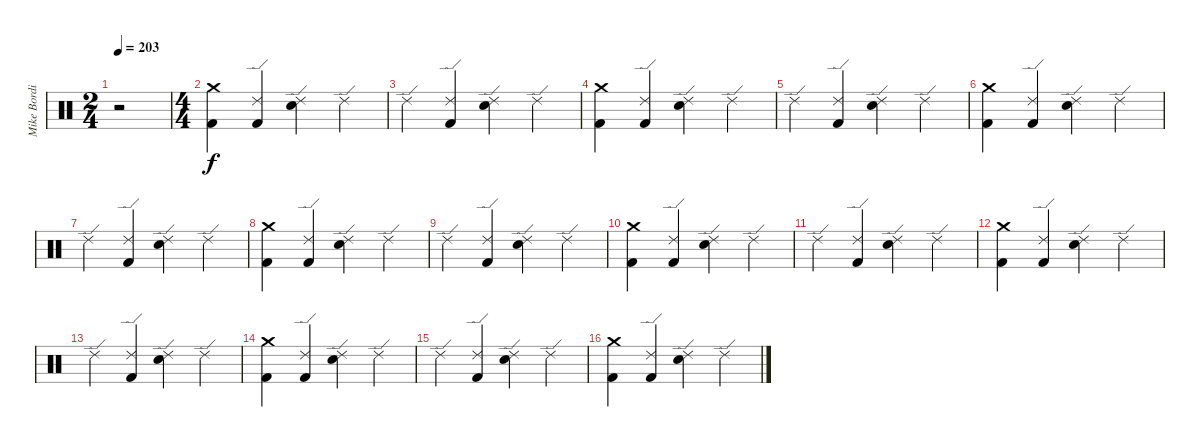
\track ("Mike Bordin" "Mike Bordi") {instrument percussion}
\staff {score}
\articulation defaults
\ts (2 4)
\tempo 203
\clef neutral
\ks c
r.2{dy f} |
\ts (4 4)
("Crash medium (hit)" "Kick (hit) 2").4 ("Ride (edge) 2" "Kick (hit) 2").4 ("Ride (edge) 2" "Snare (hit) 2").4 "Ride (edge) 2".4 |
"Ride (edge) 2".4 ("Ride (edge) 2" "Kick (hit) 2").4 ("Ride (edge) 2" "Snare (hit) 2").4 "Ride (edge) 2".4 |
("Crash medium (hit)" "Kick (hit) 2").4 ("Ride (edge) 2" "Kick (hit) 2").4 ("Ride (edge) 2" "Snare (hit) 2").4 "Ride (edge) 2".4 |
"Ride (edge) 2".4 ("Ride (edge) 2" "Kick (hit) 2").4 ("Ride (edge) 2" "Snare (hit) 2").4 "Ride (edge) 2".4 |
("Crash medium (hit)" "Kick (hit) 2").4 ("Ride (edge) 2" "Kick (hit) 2").4 ("Ride (edge) 2" "Snare (hit) 2").4 "Ride (edge) 2".4 |
"Ride (edge) 2".4 ("Ride (edge) 2" "Kick (hit) 2").4 ("Ride (edge) 2" "Snare (hit) 2").4 "Ride (edge) 2".4 |
("Crash medium (hit)" "Kick (hit) 2").4 ("Ride (edge) 2" "Kick (hit) 2").4 ("Ride (edge) 2" "Snare (hit) 2").4 "Ride (edge) 2".4 |
"Ride (edge) 2".4 ("Ride (edge) 2" "Kick (hit) 2").4 ("Ride (edge) 2" "Snare (hit) 2").4 "Ride (edge) 2".4 |
("Crash medium (hit)" "Kick (hit) 2").4 ("Ride (edge) 2" "Kick (hit) 2").4 ("Ride (edge) 2" "Snare (hit) 2").4 "Ride (edge) 2".4 |
"Ride (edge) 2".4 ("Ride (edge) 2" "Kick (hit) 2").4 ("Ride (edge) 2" "Snare (hit) 2").4 "Ride (edge) 2".4 |
("Crash medium (hit)" "Kick (hit) 2").4 ("Ride (edge) 2" "Kick (hit) 2").4 ("Ride (edge) 2" "Snare (hit) 2").4 "Ride (edge) 2".4 |
"Ride (edge) 2".4 ("Ride (edge) 2" "Kick (hit) 2").4 ("Ride (edge) 2" "Snare (hit) 2").4 "Ride (edge) 2".4 |
("Crash medium (hit)" "Kick (hit) 2").4 ("Ride (edge) 2" "Kick (hit) 2").4 ("Ride (edge) 2" "Snare (hit) 2").4 "Ride (edge) 2".4 |
"Ride (edge) 2".4 ("Ride (edge) 2" "Kick (hit) 2").4 ("Ride (edge) 2" "Snare (hit) 2").4 "Ride (edge) 2".4 |
("Crash medium (hit)" "Kick (hit) 2").4 ("Ride (edge) 2" "Kick (hit) 2").4 ("Ride (edge) 2" "Snare (hit) 2").4 "Ride (edge) 2".4
